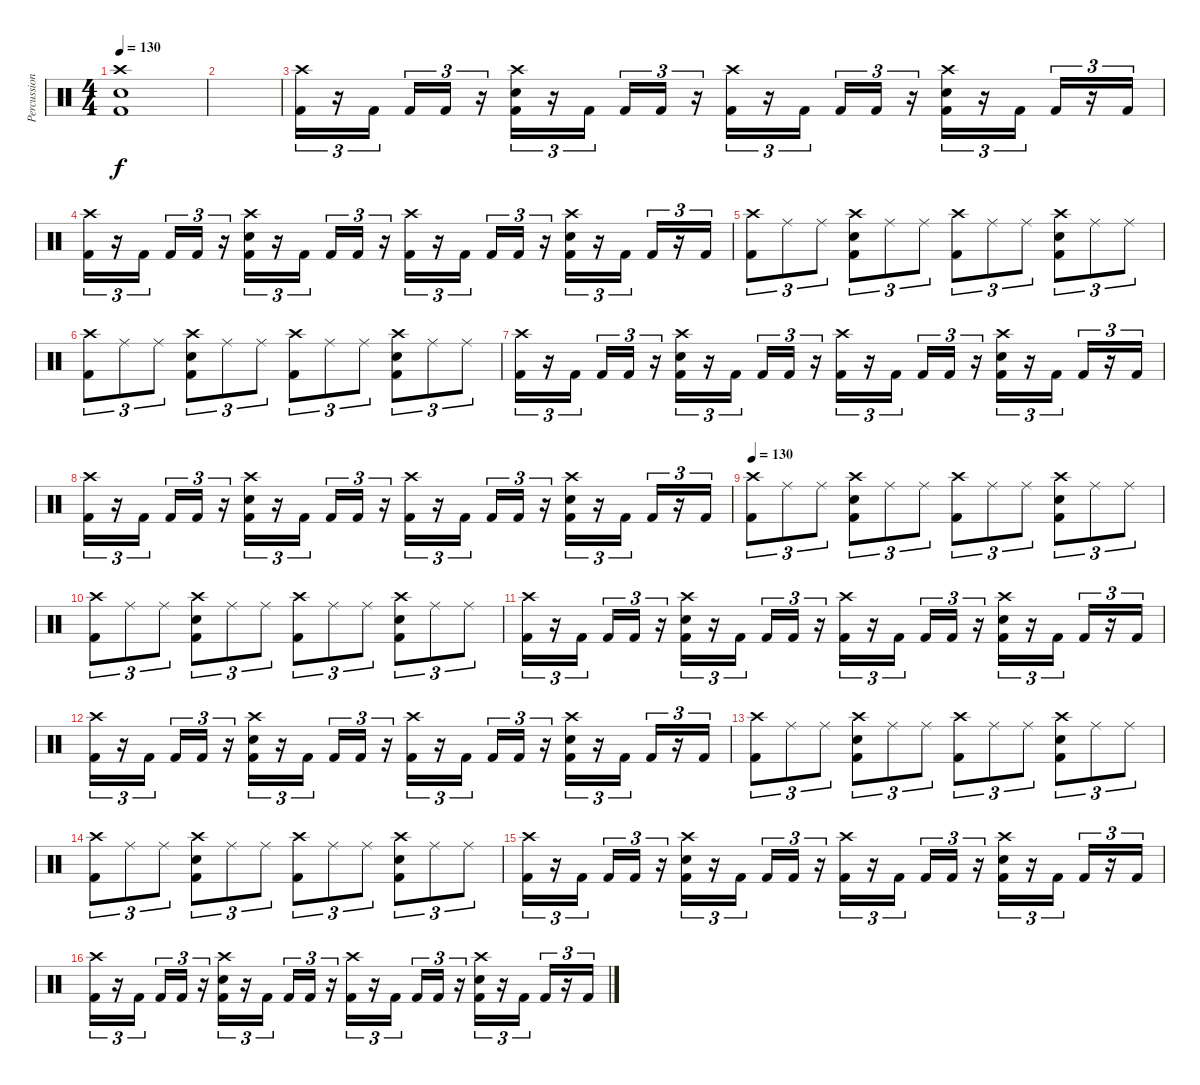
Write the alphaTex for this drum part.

\track ("Percussion" "Percussion") {instrument percussion}
\staff {score}
\articulation defaults
\ts (4 4)
\tempo 130
\clef neutral
\ks c
("Crash high (hit)" "Electric Snare (hit)" "Kick (hit) 2").1{dy f} |
|
("Crash high (hit)" "Kick (hit) 2").16{tu (3 2)} r.16{tu (3 2)} "Kick (hit) 2".16{tu (3 2) beam splitsecondary} "Kick (hit) 2".16{tu (3 2)} "Kick (hit) 2".16{tu (3 2)} r.16{tu (3 2)} ("Crash high (hit)" "Electric Snare (hit)" "Kick (hit) 2").16{tu (3 2)} r.16{tu (3 2)} "Kick (hit) 2".16{tu (3 2) beam splitsecondary} "Kick (hit) 2".16{tu (3 2)} "Kick (hit) 2".16{tu (3 2)} r.16{tu (3 2)} ("Crash high (hit)" "Kick (hit) 2").16{tu (3 2)} r.16{tu (3 2)} "Kick (hit) 2".16{tu (3 2) beam splitsecondary} "Kick (hit) 2".16{tu (3 2)} "Kick (hit) 2".16{tu (3 2)} r.16{tu (3 2)} ("Crash high (hit)" "Electric Snare (hit)" "Kick (hit) 2").16{tu (3 2)} r.16{tu (3 2)} "Kick (hit) 2".16{tu (3 2)} "Kick (hit) 2".16{tu (3 2)} r.16{tu (3 2)} "Kick (hit) 2".16{tu (3 2)} |
("Crash high (hit)" "Kick (hit) 2").16{tu (3 2)} r.16{tu (3 2)} "Kick (hit) 2".16{tu (3 2) beam splitsecondary} "Kick (hit) 2".16{tu (3 2)} "Kick (hit) 2".16{tu (3 2)} r.16{tu (3 2)} ("Crash high (hit)" "Electric Snare (hit)" "Kick (hit) 2").16{tu (3 2)} r.16{tu (3 2)} "Kick (hit) 2".16{tu (3 2) beam splitsecondary} "Kick (hit) 2".16{tu (3 2)} "Kick (hit) 2".16{tu (3 2)} r.16{tu (3 2)} ("Crash high (hit)" "Kick (hit) 2").16{tu (3 2)} r.16{tu (3 2)} "Kick (hit) 2".16{tu (3 2) beam splitsecondary} "Kick (hit) 2".16{tu (3 2)} "Kick (hit) 2".16{tu (3 2)} r.16{tu (3 2)} ("Crash high (hit)" "Electric Snare (hit)" "Kick (hit) 2").16{tu (3 2)} r.16{tu (3 2)} "Kick (hit) 2".16{tu (3 2)} "Kick (hit) 2".16{tu (3 2)} r.16{tu (3 2)} "Kick (hit) 2".16{tu (3 2)} |
("Crash high (hit)" "Kick (hit) 2").8{tu (3 2)} "Ride (middle)".8{tu (3 2)} "Ride (middle)".8{tu (3 2)} ("Crash high (hit)" "Electric Snare (hit)" "Kick (hit) 2").8{tu (3 2)} "Ride (middle)".8{tu (3 2)} "Ride (middle)".8{tu (3 2)} ("Crash high (hit)" "Kick (hit) 2").8{tu (3 2)} "Ride (middle)".8{tu (3 2)} "Ride (middle)".8{tu (3 2)} ("Crash high (hit)" "Electric Snare (hit)" "Kick (hit) 2").8{tu (3 2)} "Ride (middle)".8{tu (3 2)} "Ride (middle)".8{tu (3 2)} |
("Crash high (hit)" "Kick (hit) 2").8{tu (3 2)} "Ride (middle)".8{tu (3 2)} "Ride (middle)".8{tu (3 2)} ("Crash high (hit)" "Electric Snare (hit)" "Kick (hit) 2").8{tu (3 2)} "Ride (middle)".8{tu (3 2)} "Ride (middle)".8{tu (3 2)} ("Crash high (hit)" "Kick (hit) 2").8{tu (3 2)} "Ride (middle)".8{tu (3 2)} "Ride (middle)".8{tu (3 2)} ("Crash high (hit)" "Electric Snare (hit)" "Kick (hit) 2").8{tu (3 2)} "Ride (middle)".8{tu (3 2)} "Ride (middle)".8{tu (3 2)} |
("Crash high (hit)" "Kick (hit) 2").16{tu (3 2)} r.16{tu (3 2)} "Kick (hit) 2".16{tu (3 2) beam splitsecondary} "Kick (hit) 2".16{tu (3 2)} "Kick (hit) 2".16{tu (3 2)} r.16{tu (3 2)} ("Crash high (hit)" "Electric Snare (hit)" "Kick (hit) 2").16{tu (3 2)} r.16{tu (3 2)} "Kick (hit) 2".16{tu (3 2) beam splitsecondary} "Kick (hit) 2".16{tu (3 2)} "Kick (hit) 2".16{tu (3 2)} r.16{tu (3 2)} ("Crash high (hit)" "Kick (hit) 2").16{tu (3 2)} r.16{tu (3 2)} "Kick (hit) 2".16{tu (3 2) beam splitsecondary} "Kick (hit) 2".16{tu (3 2)} "Kick (hit) 2".16{tu (3 2)} r.16{tu (3 2)} ("Crash high (hit)" "Electric Snare (hit)" "Kick (hit) 2").16{tu (3 2)} r.16{tu (3 2)} "Kick (hit) 2".16{tu (3 2)} "Kick (hit) 2".16{tu (3 2)} r.16{tu (3 2)} "Kick (hit) 2".16{tu (3 2)} |
("Crash high (hit)" "Kick (hit) 2").16{tu (3 2)} r.16{tu (3 2)} "Kick (hit) 2".16{tu (3 2) beam splitsecondary} "Kick (hit) 2".16{tu (3 2)} "Kick (hit) 2".16{tu (3 2)} r.16{tu (3 2)} ("Crash high (hit)" "Electric Snare (hit)" "Kick (hit) 2").16{tu (3 2)} r.16{tu (3 2)} "Kick (hit) 2".16{tu (3 2) beam splitsecondary} "Kick (hit) 2".16{tu (3 2)} "Kick (hit) 2".16{tu (3 2)} r.16{tu (3 2)} ("Crash high (hit)" "Kick (hit) 2").16{tu (3 2)} r.16{tu (3 2)} "Kick (hit) 2".16{tu (3 2) beam splitsecondary} "Kick (hit) 2".16{tu (3 2)} "Kick (hit) 2".16{tu (3 2)} r.16{tu (3 2)} ("Crash high (hit)" "Electric Snare (hit)" "Kick (hit) 2").16{tu (3 2)} r.16{tu (3 2)} "Kick (hit) 2".16{tu (3 2)} "Kick (hit) 2".16{tu (3 2)} r.16{tu (3 2)} "Kick (hit) 2".16{tu (3 2)} |
\tempo 130
("Crash high (hit)" "Kick (hit) 2").8{tu (3 2)} "Ride (middle)".8{tu (3 2)} "Ride (middle)".8{tu (3 2)} ("Crash high (hit)" "Electric Snare (hit)" "Kick (hit) 2").8{tu (3 2)} "Ride (middle)".8{tu (3 2)} "Ride (middle)".8{tu (3 2)} ("Crash high (hit)" "Kick (hit) 2").8{tu (3 2)} "Ride (middle)".8{tu (3 2)} "Ride (middle)".8{tu (3 2)} ("Crash high (hit)" "Electric Snare (hit)" "Kick (hit) 2").8{tu (3 2)} "Ride (middle)".8{tu (3 2)} "Ride (middle)".8{tu (3 2)} |
("Crash high (hit)" "Kick (hit) 2").8{tu (3 2)} "Ride (middle)".8{tu (3 2)} "Ride (middle)".8{tu (3 2)} ("Crash high (hit)" "Electric Snare (hit)" "Kick (hit) 2").8{tu (3 2)} "Ride (middle)".8{tu (3 2)} "Ride (middle)".8{tu (3 2)} ("Crash high (hit)" "Kick (hit) 2").8{tu (3 2)} "Ride (middle)".8{tu (3 2)} "Ride (middle)".8{tu (3 2)} ("Crash high (hit)" "Electric Snare (hit)" "Kick (hit) 2").8{tu (3 2)} "Ride (middle)".8{tu (3 2)} "Ride (middle)".8{tu (3 2)} |
("Crash high (hit)" "Kick (hit) 2").16{tu (3 2)} r.16{tu (3 2)} "Kick (hit) 2".16{tu (3 2) beam splitsecondary} "Kick (hit) 2".16{tu (3 2)} "Kick (hit) 2".16{tu (3 2)} r.16{tu (3 2)} ("Crash high (hit)" "Electric Snare (hit)" "Kick (hit) 2").16{tu (3 2)} r.16{tu (3 2)} "Kick (hit) 2".16{tu (3 2) beam splitsecondary} "Kick (hit) 2".16{tu (3 2)} "Kick (hit) 2".16{tu (3 2)} r.16{tu (3 2)} ("Crash high (hit)" "Kick (hit) 2").16{tu (3 2)} r.16{tu (3 2)} "Kick (hit) 2".16{tu (3 2) beam splitsecondary} "Kick (hit) 2".16{tu (3 2)} "Kick (hit) 2".16{tu (3 2)} r.16{tu (3 2)} ("Crash high (hit)" "Electric Snare (hit)" "Kick (hit) 2").16{tu (3 2)} r.16{tu (3 2)} "Kick (hit) 2".16{tu (3 2)} "Kick (hit) 2".16{tu (3 2)} r.16{tu (3 2)} "Kick (hit) 2".16{tu (3 2)} |
("Crash high (hit)" "Kick (hit) 2").16{tu (3 2)} r.16{tu (3 2)} "Kick (hit) 2".16{tu (3 2) beam splitsecondary} "Kick (hit) 2".16{tu (3 2)} "Kick (hit) 2".16{tu (3 2)} r.16{tu (3 2)} ("Crash high (hit)" "Electric Snare (hit)" "Kick (hit) 2").16{tu (3 2)} r.16{tu (3 2)} "Kick (hit) 2".16{tu (3 2) beam splitsecondary} "Kick (hit) 2".16{tu (3 2)} "Kick (hit) 2".16{tu (3 2)} r.16{tu (3 2)} ("Crash high (hit)" "Kick (hit) 2").16{tu (3 2)} r.16{tu (3 2)} "Kick (hit) 2".16{tu (3 2) beam splitsecondary} "Kick (hit) 2".16{tu (3 2)} "Kick (hit) 2".16{tu (3 2)} r.16{tu (3 2)} ("Crash high (hit)" "Electric Snare (hit)" "Kick (hit) 2").16{tu (3 2)} r.16{tu (3 2)} "Kick (hit) 2".16{tu (3 2)} "Kick (hit) 2".16{tu (3 2)} r.16{tu (3 2)} "Kick (hit) 2".16{tu (3 2)} |
("Crash high (hit)" "Kick (hit) 2").8{tu (3 2)} "Ride (middle)".8{tu (3 2)} "Ride (middle)".8{tu (3 2)} ("Crash high (hit)" "Electric Snare (hit)" "Kick (hit) 2").8{tu (3 2)} "Ride (middle)".8{tu (3 2)} "Ride (middle)".8{tu (3 2)} ("Crash high (hit)" "Kick (hit) 2").8{tu (3 2)} "Ride (middle)".8{tu (3 2)} "Ride (middle)".8{tu (3 2)} ("Crash high (hit)" "Electric Snare (hit)" "Kick (hit) 2").8{tu (3 2)} "Ride (middle)".8{tu (3 2)} "Ride (middle)".8{tu (3 2)} |
("Crash high (hit)" "Kick (hit) 2").8{tu (3 2)} "Ride (middle)".8{tu (3 2)} "Ride (middle)".8{tu (3 2)} ("Crash high (hit)" "Electric Snare (hit)" "Kick (hit) 2").8{tu (3 2)} "Ride (middle)".8{tu (3 2)} "Ride (middle)".8{tu (3 2)} ("Crash high (hit)" "Kick (hit) 2").8{tu (3 2)} "Ride (middle)".8{tu (3 2)} "Ride (middle)".8{tu (3 2)} ("Crash high (hit)" "Electric Snare (hit)" "Kick (hit) 2").8{tu (3 2)} "Ride (middle)".8{tu (3 2)} "Ride (middle)".8{tu (3 2)} |
("Crash high (hit)" "Kick (hit) 2").16{tu (3 2)} r.16{tu (3 2)} "Kick (hit) 2".16{tu (3 2) beam splitsecondary} "Kick (hit) 2".16{tu (3 2)} "Kick (hit) 2".16{tu (3 2)} r.16{tu (3 2)} ("Crash high (hit)" "Electric Snare (hit)" "Kick (hit) 2").16{tu (3 2)} r.16{tu (3 2)} "Kick (hit) 2".16{tu (3 2) beam splitsecondary} "Kick (hit) 2".16{tu (3 2)} "Kick (hit) 2".16{tu (3 2)} r.16{tu (3 2)} ("Crash high (hit)" "Kick (hit) 2").16{tu (3 2)} r.16{tu (3 2)} "Kick (hit) 2".16{tu (3 2) beam splitsecondary} "Kick (hit) 2".16{tu (3 2)} "Kick (hit) 2".16{tu (3 2)} r.16{tu (3 2)} ("Crash high (hit)" "Electric Snare (hit)" "Kick (hit) 2").16{tu (3 2)} r.16{tu (3 2)} "Kick (hit) 2".16{tu (3 2)} "Kick (hit) 2".16{tu (3 2)} r.16{tu (3 2)} "Kick (hit) 2".16{tu (3 2)} |
("Crash high (hit)" "Kick (hit) 2").16{tu (3 2)} r.16{tu (3 2)} "Kick (hit) 2".16{tu (3 2) beam splitsecondary} "Kick (hit) 2".16{tu (3 2)} "Kick (hit) 2".16{tu (3 2)} r.16{tu (3 2)} ("Crash high (hit)" "Electric Snare (hit)" "Kick (hit) 2").16{tu (3 2)} r.16{tu (3 2)} "Kick (hit) 2".16{tu (3 2) beam splitsecondary} "Kick (hit) 2".16{tu (3 2)} "Kick (hit) 2".16{tu (3 2)} r.16{tu (3 2)} ("Crash high (hit)" "Kick (hit) 2").16{tu (3 2)} r.16{tu (3 2)} "Kick (hit) 2".16{tu (3 2) beam splitsecondary} "Kick (hit) 2".16{tu (3 2)} "Kick (hit) 2".16{tu (3 2)} r.16{tu (3 2)} ("Crash high (hit)" "Electric Snare (hit)" "Kick (hit) 2").16{tu (3 2)} r.16{tu (3 2)} "Kick (hit) 2".16{tu (3 2)} "Kick (hit) 2".16{tu (3 2)} r.16{tu (3 2)} "Kick (hit) 2".16{tu (3 2)}
